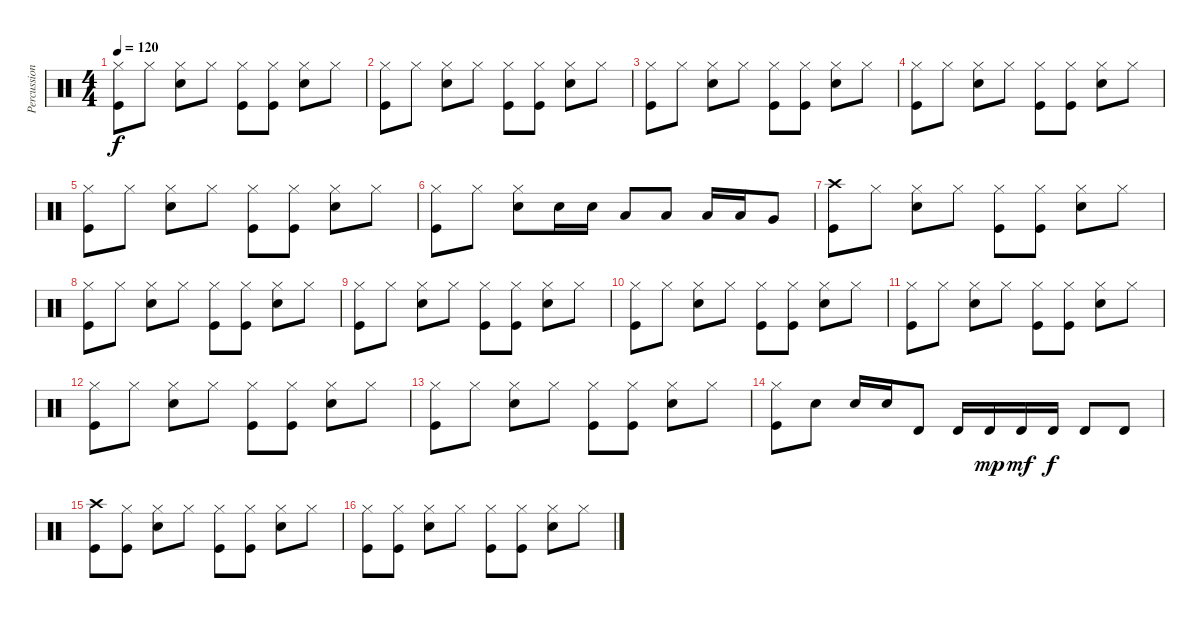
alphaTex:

\track ("Percussion" "Percussion") {instrument percussion}
\staff {score}
\articulation defaults
\ts (4 4)
\tempo 120
\clef neutral
\ks c
("Hi-Hat (closed)" "Kick (hit)").8{dy f} "Hi-Hat (closed)".8 ("Hi-Hat (closed)" "Snare (hit) 2").8 "Hi-Hat (closed)".8 ("Hi-Hat (closed)" "Kick (hit)").8 ("Hi-Hat (closed)" "Kick (hit)").8 ("Hi-Hat (closed)" "Snare (hit) 2").8 "Hi-Hat (closed)".8 |
("Hi-Hat (closed)" "Kick (hit)").8 "Hi-Hat (closed)".8 ("Hi-Hat (closed)" "Snare (hit) 2").8 "Hi-Hat (closed)".8 ("Hi-Hat (closed)" "Kick (hit)").8 ("Hi-Hat (closed)" "Kick (hit)").8 ("Hi-Hat (closed)" "Snare (hit) 2").8 "Hi-Hat (closed)".8 |
("Hi-Hat (closed)" "Kick (hit)").8 "Hi-Hat (closed)".8 ("Hi-Hat (closed)" "Snare (hit) 2").8 "Hi-Hat (closed)".8 ("Hi-Hat (closed)" "Kick (hit)").8 ("Hi-Hat (closed)" "Kick (hit)").8 ("Hi-Hat (closed)" "Snare (hit) 2").8 "Hi-Hat (closed)".8 |
("Hi-Hat (closed)" "Kick (hit)").8 "Hi-Hat (closed)".8 ("Hi-Hat (closed)" "Snare (hit) 2").8 "Hi-Hat (closed)".8 ("Hi-Hat (closed)" "Kick (hit)").8 ("Hi-Hat (closed)" "Kick (hit)").8 ("Hi-Hat (closed)" "Snare (hit) 2").8 "Hi-Hat (closed)".8 |
("Hi-Hat (closed)" "Kick (hit)").8 "Hi-Hat (closed)".8 ("Hi-Hat (closed)" "Snare (hit) 2").8 "Hi-Hat (closed)".8 ("Hi-Hat (closed)" "Kick (hit)").8 ("Hi-Hat (closed)" "Kick (hit)").8 ("Hi-Hat (closed)" "Snare (hit) 2").8 "Hi-Hat (closed)".8 |
("Hi-Hat (closed)" "Kick (hit)").8 "Hi-Hat (closed)".8 ("Hi-Hat (closed)" "Snare (hit) 2").8 "Snare (hit) 2".16 "Snare (hit) 2".16 "Low Tom (hit)".8 "Low Tom (hit)".8 "Low Tom (hit)".16 "Low Tom (hit)".16 "Very Low Tom (hit)".8 |
("Crash high (hit)" "Kick (hit)").8 "Hi-Hat (closed)".8 ("Hi-Hat (closed)" "Snare (hit) 2").8 "Hi-Hat (closed)".8 ("Hi-Hat (closed)" "Kick (hit)").8 ("Hi-Hat (closed)" "Kick (hit)").8 ("Hi-Hat (closed)" "Snare (hit) 2").8 "Hi-Hat (closed)".8 |
("Hi-Hat (closed)" "Kick (hit)").8 "Hi-Hat (closed)".8 ("Hi-Hat (closed)" "Snare (hit) 2").8 "Hi-Hat (closed)".8 ("Hi-Hat (closed)" "Kick (hit)").8 ("Hi-Hat (closed)" "Kick (hit)").8 ("Hi-Hat (closed)" "Snare (hit) 2").8 "Hi-Hat (closed)".8 |
("Hi-Hat (closed)" "Kick (hit)").8 "Hi-Hat (closed)".8 ("Hi-Hat (closed)" "Snare (hit) 2").8 "Hi-Hat (closed)".8 ("Hi-Hat (closed)" "Kick (hit)").8 ("Hi-Hat (closed)" "Kick (hit)").8 ("Hi-Hat (closed)" "Snare (hit) 2").8 "Hi-Hat (closed)".8 |
("Hi-Hat (closed)" "Kick (hit)").8 "Hi-Hat (closed)".8 ("Hi-Hat (closed)" "Snare (hit) 2").8 "Hi-Hat (closed)".8 ("Hi-Hat (closed)" "Kick (hit)").8 ("Hi-Hat (closed)" "Kick (hit)").8 ("Hi-Hat (closed)" "Snare (hit) 2").8 "Hi-Hat (closed)".8 |
("Hi-Hat (closed)" "Kick (hit)").8 "Hi-Hat (closed)".8 ("Hi-Hat (closed)" "Snare (hit) 2").8 "Hi-Hat (closed)".8 ("Hi-Hat (closed)" "Kick (hit)").8 ("Hi-Hat (closed)" "Kick (hit)").8 ("Hi-Hat (closed)" "Snare (hit) 2").8 "Hi-Hat (closed)".8 |
("Hi-Hat (closed)" "Kick (hit)").8 "Hi-Hat (closed)".8 ("Hi-Hat (closed)" "Snare (hit) 2").8 "Hi-Hat (closed)".8 ("Hi-Hat (closed)" "Kick (hit)").8 ("Hi-Hat (closed)" "Kick (hit)").8 ("Hi-Hat (closed)" "Snare (hit) 2").8 "Hi-Hat (closed)".8 |
("Hi-Hat (closed)" "Kick (hit)").8 "Hi-Hat (closed)".8 ("Hi-Hat (closed)" "Snare (hit) 2").8 "Hi-Hat (closed)".8 ("Hi-Hat (closed)" "Kick (hit)").8 ("Hi-Hat (closed)" "Kick (hit)").8 ("Hi-Hat (closed)" "Snare (hit) 2").8 "Hi-Hat (closed)".8 |
("Hi-Hat (closed)" "Kick (hit)").8 "Snare (hit) 2".8 "Snare (hit) 2".16 "Snare (hit) 2".16 "Timbale high (hit)".8 "Timbale high (hit)".16 "Timbale high (hit)".16{dy mp} "Timbale high (hit)".16{dy mf} "Timbale high (hit)".16{dy f} "Timbale high (hit)".8 "Timbale high (hit)".8 |
("Crash high (hit)" "Kick (hit)").8 ("Hi-Hat (closed)" "Kick (hit)").8 ("Hi-Hat (closed)" "Snare (hit) 2").8 "Hi-Hat (closed)".8 ("Hi-Hat (closed)" "Kick (hit)").8 ("Hi-Hat (closed)" "Kick (hit)").8 ("Hi-Hat (closed)" "Snare (hit) 2").8 "Hi-Hat (closed)".8 |
("Hi-Hat (closed)" "Kick (hit)").8 ("Hi-Hat (closed)" "Kick (hit)").8 ("Hi-Hat (closed)" "Snare (hit) 2").8 "Hi-Hat (closed)".8 ("Hi-Hat (closed)" "Kick (hit)").8 ("Hi-Hat (closed)" "Kick (hit)").8 ("Hi-Hat (closed)" "Snare (hit) 2").8 "Hi-Hat (closed)".8
